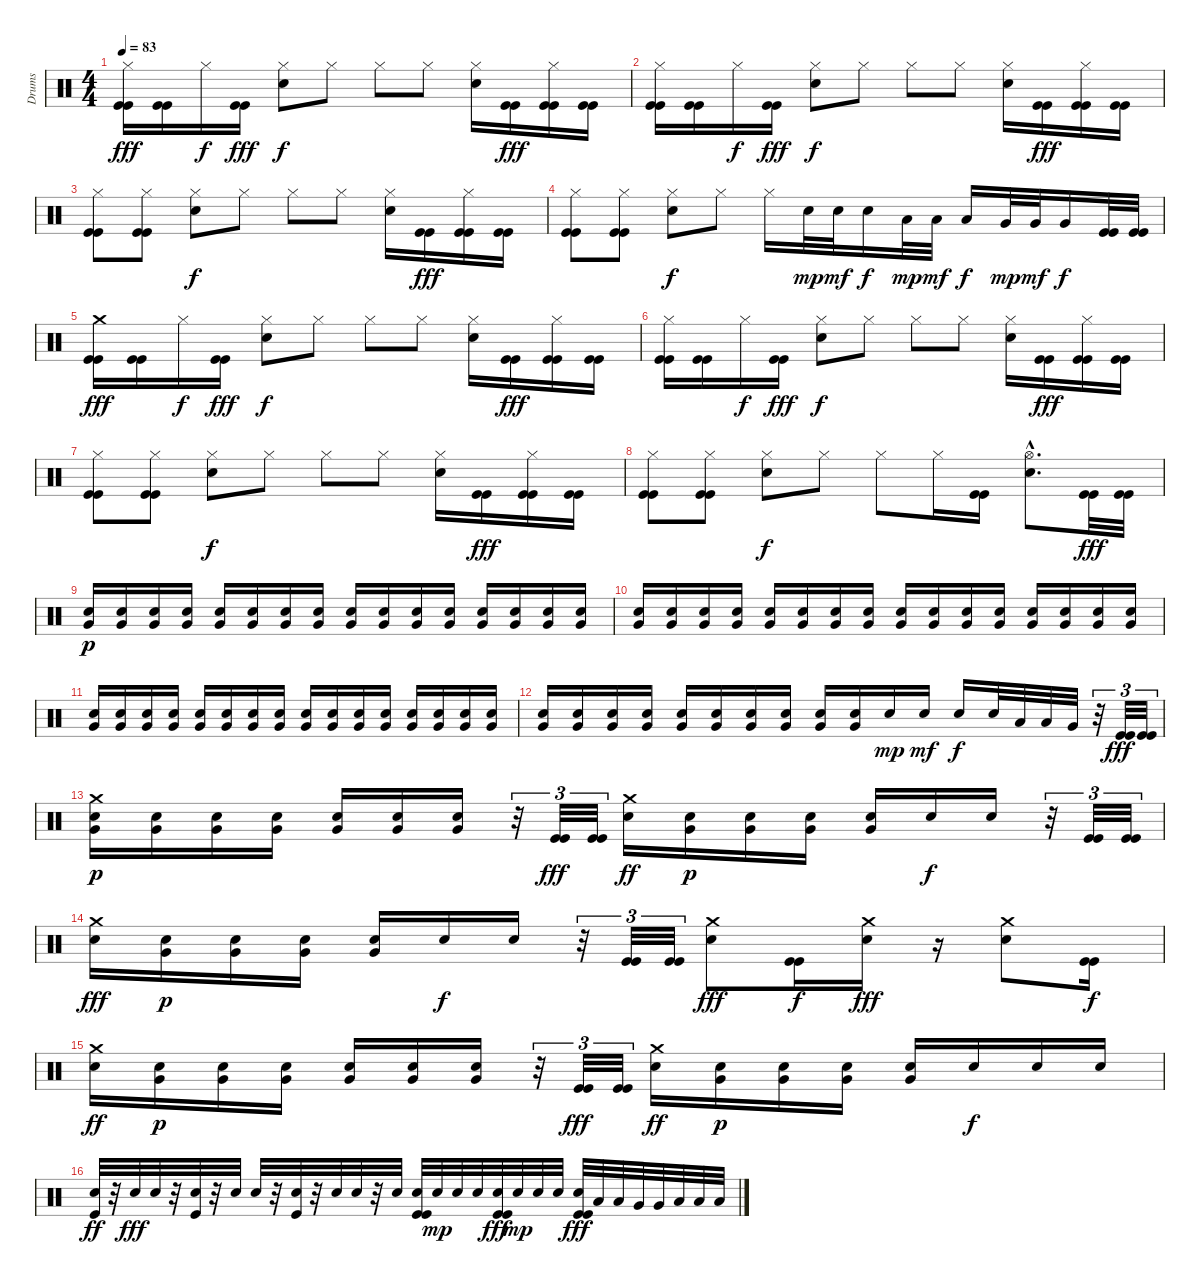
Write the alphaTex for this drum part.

\track ("Drums" "Drums") {instrument percussion}
\staff {score}
\articulation defaults
\ts (4 4)
\tempo 83
\clef neutral
\ks c
("Hi-Hat (closed)" "Kick (hit)" "Kick (hit)").16{dy fff} ("Kick (hit)" "Kick (hit)").16 "Hi-Hat (closed)".16{dy f} ("Kick (hit)" "Kick (hit)").16{dy fff} ("Hi-Hat (closed)" "Snare (hit) 2").8{dy f} "Hi-Hat (closed)".8 "Hi-Hat (closed)".8 "Hi-Hat (closed)".8 ("Hi-Hat (closed)" "Snare (hit) 2").16 ("Kick (hit)" "Kick (hit)").16{dy fff} ("Hi-Hat (closed)" "Kick (hit)" "Kick (hit)").16 ("Kick (hit)" "Kick (hit)").16 |
("Hi-Hat (closed)" "Kick (hit)" "Kick (hit)").16 ("Kick (hit)" "Kick (hit)").16 "Hi-Hat (closed)".16{dy f} ("Kick (hit)" "Kick (hit)").16{dy fff} ("Hi-Hat (closed)" "Snare (hit) 2").8{dy f} "Hi-Hat (closed)".8 "Hi-Hat (closed)".8 "Hi-Hat (closed)".8 ("Hi-Hat (closed)" "Snare (hit) 2").16 ("Kick (hit)" "Kick (hit)").16{dy fff} ("Hi-Hat (closed)" "Kick (hit)" "Kick (hit)").16 ("Kick (hit)" "Kick (hit)").16 |
("Hi-Hat (closed)" "Kick (hit)" "Kick (hit)").8 ("Hi-Hat (closed)" "Kick (hit)" "Kick (hit)").8 ("Hi-Hat (closed)" "Snare (hit) 2").8{dy f} "Hi-Hat (closed)".8 "Hi-Hat (closed)".8 "Hi-Hat (closed)".8 ("Hi-Hat (closed)" "Snare (hit) 2").16 ("Kick (hit)" "Kick (hit)").16{dy fff} ("Hi-Hat (closed)" "Kick (hit)" "Kick (hit)").16 ("Kick (hit)" "Kick (hit)").16 |
("Hi-Hat (closed)" "Kick (hit)" "Kick (hit)").8 ("Hi-Hat (closed)" "Kick (hit)" "Kick (hit)").8 ("Hi-Hat (closed)" "Snare (hit) 2").8{dy f} "Hi-Hat (closed)".8 "Hi-Hat (closed)".16 "Snare (hit) 2".32{dy mp} "Snare (hit) 2".32{dy mf} "Snare (hit) 2".16{dy f} "Low Tom (hit)".32{dy mp} "Low Tom (hit)".32{dy mf} "Low Tom (hit)".16{dy f} "Very Low Tom (hit)".32{dy mp} "Very Low Tom (hit)".32{dy mf} "Very Low Tom (hit)".16{dy f} ("Kick (hit)" "Kick (hit)").32 ("Kick (hit)" "Kick (hit)").32 |
("Crash medium (hit)" "Kick (hit)" "Kick (hit)").16{dy fff} ("Kick (hit)" "Kick (hit)").16 "Hi-Hat (closed)".16{dy f} ("Kick (hit)" "Kick (hit)").16{dy fff} ("Hi-Hat (closed)" "Snare (hit) 2").8{dy f} "Hi-Hat (closed)".8 "Hi-Hat (closed)".8 "Hi-Hat (closed)".8 ("Hi-Hat (closed)" "Snare (hit) 2").16 ("Kick (hit)" "Kick (hit)").16{dy fff} ("Hi-Hat (closed)" "Kick (hit)" "Kick (hit)").16 ("Kick (hit)" "Kick (hit)").16 |
("Hi-Hat (closed)" "Kick (hit)" "Kick (hit)").16 ("Kick (hit)" "Kick (hit)").16 "Hi-Hat (closed)".16{dy f} ("Kick (hit)" "Kick (hit)").16{dy fff} ("Hi-Hat (closed)" "Snare (hit) 2").8{dy f} "Hi-Hat (closed)".8 "Hi-Hat (closed)".8 "Hi-Hat (closed)".8 ("Hi-Hat (closed)" "Snare (hit) 2").16 ("Kick (hit)" "Kick (hit)").16{dy fff} ("Hi-Hat (closed)" "Kick (hit)" "Kick (hit)").16 ("Kick (hit)" "Kick (hit)").16 |
("Hi-Hat (closed)" "Kick (hit)" "Kick (hit)").8 ("Hi-Hat (closed)" "Kick (hit)" "Kick (hit)").8 ("Hi-Hat (closed)" "Snare (hit) 2").8{dy f} "Hi-Hat (closed)".8 "Hi-Hat (closed)".8 "Hi-Hat (closed)".8 ("Hi-Hat (closed)" "Snare (hit) 2").16 ("Kick (hit)" "Kick (hit)").16{dy fff} ("Hi-Hat (closed)" "Kick (hit)" "Kick (hit)").16 ("Kick (hit)" "Kick (hit)").16 |
("Hi-Hat (closed)" "Kick (hit)" "Kick (hit)").8 ("Hi-Hat (closed)" "Kick (hit)" "Kick (hit)").8 ("Hi-Hat (closed)" "Snare (hit) 2").8{dy f} "Hi-Hat (closed)".8 "Hi-Hat (closed)".8 "Hi-Hat (closed)".16 ("Kick (hit)" "Kick (hit)").16 ("Hi-Hat (open)"{hac} "Snare (hit) 2"{hac}).8{d} ("Kick (hit)" "Kick (hit)").32{dy fff} ("Kick (hit)" "Kick (hit)").32 |
("Snare (hit) 2" "Very Low Tom (hit)").16{dy p} ("Snare (hit) 2" "Very Low Tom (hit)").16 ("Snare (hit) 2" "Very Low Tom (hit)").16 ("Snare (hit) 2" "Very Low Tom (hit)").16 ("Snare (hit) 2" "Very Low Tom (hit)").16 ("Snare (hit) 2" "Very Low Tom (hit)").16 ("Snare (hit) 2" "Very Low Tom (hit)").16 ("Snare (hit) 2" "Very Low Tom (hit)").16 ("Snare (hit) 2" "Very Low Tom (hit)").16 ("Snare (hit) 2" "Very Low Tom (hit)").16 ("Snare (hit) 2" "Very Low Tom (hit)").16 ("Snare (hit) 2" "Very Low Tom (hit)").16 ("Snare (hit) 2" "Very Low Tom (hit)").16 ("Snare (hit) 2" "Very Low Tom (hit)").16 ("Snare (hit) 2" "Very Low Tom (hit)").16 ("Snare (hit) 2" "Very Low Tom (hit)").16 |
("Snare (hit) 2" "Very Low Tom (hit)").16 ("Snare (hit) 2" "Very Low Tom (hit)").16 ("Snare (hit) 2" "Very Low Tom (hit)").16 ("Snare (hit) 2" "Very Low Tom (hit)").16 ("Snare (hit) 2" "Very Low Tom (hit)").16 ("Snare (hit) 2" "Very Low Tom (hit)").16 ("Snare (hit) 2" "Very Low Tom (hit)").16 ("Snare (hit) 2" "Very Low Tom (hit)").16 ("Snare (hit) 2" "Very Low Tom (hit)").16 ("Snare (hit) 2" "Very Low Tom (hit)").16 ("Snare (hit) 2" "Very Low Tom (hit)").16 ("Snare (hit) 2" "Very Low Tom (hit)").16 ("Snare (hit) 2" "Very Low Tom (hit)").16 ("Snare (hit) 2" "Very Low Tom (hit)").16 ("Snare (hit) 2" "Very Low Tom (hit)").16 ("Snare (hit) 2" "Very Low Tom (hit)").16 |
("Snare (hit) 2" "Very Low Tom (hit)").16 ("Snare (hit) 2" "Very Low Tom (hit)").16 ("Snare (hit) 2" "Very Low Tom (hit)").16 ("Snare (hit) 2" "Very Low Tom (hit)").16 ("Snare (hit) 2" "Very Low Tom (hit)").16 ("Snare (hit) 2" "Very Low Tom (hit)").16 ("Snare (hit) 2" "Very Low Tom (hit)").16 ("Snare (hit) 2" "Very Low Tom (hit)").16 ("Snare (hit) 2" "Very Low Tom (hit)").16 ("Snare (hit) 2" "Very Low Tom (hit)").16 ("Snare (hit) 2" "Very Low Tom (hit)").16 ("Snare (hit) 2" "Very Low Tom (hit)").16 ("Snare (hit) 2" "Very Low Tom (hit)").16 ("Snare (hit) 2" "Very Low Tom (hit)").16 ("Snare (hit) 2" "Very Low Tom (hit)").16 ("Snare (hit) 2" "Very Low Tom (hit)").16 |
("Snare (hit) 2" "Very Low Tom (hit)").16 ("Snare (hit) 2" "Very Low Tom (hit)").16 ("Snare (hit) 2" "Very Low Tom (hit)").16 ("Snare (hit) 2" "Very Low Tom (hit)").16 ("Snare (hit) 2" "Very Low Tom (hit)").16 ("Snare (hit) 2" "Very Low Tom (hit)").16 ("Snare (hit) 2" "Very Low Tom (hit)").16 ("Snare (hit) 2" "Very Low Tom (hit)").16 ("Snare (hit) 2" "Very Low Tom (hit)").16 ("Snare (hit) 2" "Very Low Tom (hit)").16 "Snare (hit) 2".16{dy mp} "Snare (hit) 2".16{dy mf} "Snare (hit) 2".16{dy f} "Snare (hit) 2".32 "Low Tom (hit)".32 "Low Tom (hit)".32 "Very Low Tom (hit)".32 r.32{tu (3 2)} ("Kick (hit)" "Kick (hit)").32{tu (3 2) dy fff} ("Kick (hit)" "Kick (hit)").32{tu (3 2)} |
("Crash medium (hit)" "Snare (hit) 2" "Very Low Tom (hit)").16{dy p} ("Snare (hit) 2" "Very Low Tom (hit)").16 ("Snare (hit) 2" "Very Low Tom (hit)").16 ("Snare (hit) 2" "Very Low Tom (hit)").16 ("Snare (hit) 2" "Very Low Tom (hit)").16 ("Snare (hit) 2" "Very Low Tom (hit)").16 ("Snare (hit) 2" "Very Low Tom (hit)").16 r.32{tu (3 2)} ("Kick (hit)" "Kick (hit)").32{tu (3 2) dy fff} ("Kick (hit)" "Kick (hit)").32{tu (3 2)} ("Crash medium (hit)" "Snare (hit) 2").16{dy ff} ("Snare (hit) 2" "Very Low Tom (hit)").16{dy p} ("Snare (hit) 2" "Very Low Tom (hit)").16 ("Snare (hit) 2" "Very Low Tom (hit)").16 ("Snare (hit) 2" "Very Low Tom (hit)").16 "Snare (hit) 2".16{dy f} "Snare (hit) 2".16 r.32{tu (3 2)} ("Kick (hit)" "Kick (hit)").32{tu (3 2)} ("Kick (hit)" "Kick (hit)").32{tu (3 2)} |
("Crash medium (hit)" "Snare (hit) 2").16{dy fff} ("Snare (hit) 2" "Very Low Tom (hit)").16{dy p} ("Snare (hit) 2" "Very Low Tom (hit)").16 ("Snare (hit) 2" "Very Low Tom (hit)").16 ("Snare (hit) 2" "Very Low Tom (hit)").16 "Snare (hit) 2".16{dy f} "Snare (hit) 2".16 r.32{tu (3 2)} ("Kick (hit)" "Kick (hit)").32{tu (3 2)} ("Kick (hit)" "Kick (hit)").32{tu (3 2)} ("Crash medium (hit)" "Snare (hit) 2").8{dy fff} ("Kick (hit)" "Kick (hit)").16{dy f} ("Crash medium (hit)" "Snare (hit) 2").16{dy fff} r.16 ("Crash medium (hit)" "Snare (hit) 2").8 ("Kick (hit)" "Kick (hit)").16{dy f} |
("Crash medium (hit)" "Snare (hit) 2").16{dy ff} ("Snare (hit) 2" "Very Low Tom (hit)").16{dy p} ("Snare (hit) 2" "Very Low Tom (hit)").16 ("Snare (hit) 2" "Very Low Tom (hit)").16 ("Snare (hit) 2" "Very Low Tom (hit)").16 ("Snare (hit) 2" "Very Low Tom (hit)").16 ("Snare (hit) 2" "Very Low Tom (hit)").16 r.32{tu (3 2)} ("Kick (hit)" "Kick (hit)").32{tu (3 2) dy fff} ("Kick (hit)" "Kick (hit)").32{tu (3 2)} ("Crash medium (hit)" "Snare (hit) 2").16{dy ff} ("Snare (hit) 2" "Very Low Tom (hit)").16{dy p} ("Snare (hit) 2" "Very Low Tom (hit)").16 ("Snare (hit) 2" "Very Low Tom (hit)").16 ("Snare (hit) 2" "Very Low Tom (hit)").16 "Snare (hit) 2".16{dy f} "Snare (hit) 2".16 "Snare (hit) 2".16 |
("Snare (hit) 2" "Kick (hit)").32{dy ff} r.32 "Snare (hit) 2".32{dy fff} "Snare (hit) 2".32 r.32 ("Snare (hit) 2" "Kick (hit)").32 r.32 "Snare (hit) 2".32 "Snare (hit) 2".32 r.32 ("Snare (hit) 2" "Kick (hit)").32 r.32 "Snare (hit) 2".32 "Snare (hit) 2".32 r.32 "Snare (hit) 2".32 ("Snare (hit) 2" "Kick (hit)" "Kick (hit)").32 "Snare (hit) 2".32{dy mp} "Snare (hit) 2".32 "Snare (hit) 2".32 ("Snare (hit) 2" "Kick (hit)" "Kick (hit)").32{dy fff} "Snare (hit) 2".32{dy mp} "Snare (hit) 2".32 "Snare (hit) 2".32 ("Snare (hit) 2" "Kick (hit)" "Kick (hit)").32{dy fff} "Low Tom (hit)".32 "Low Tom (hit)".32 "Very Low Tom (hit)".32 "Very Low Tom (hit)".32 "Low Floor Tom (hit)".32 "Low Floor Tom (hit)".32 "Low Floor Tom (hit)".32
